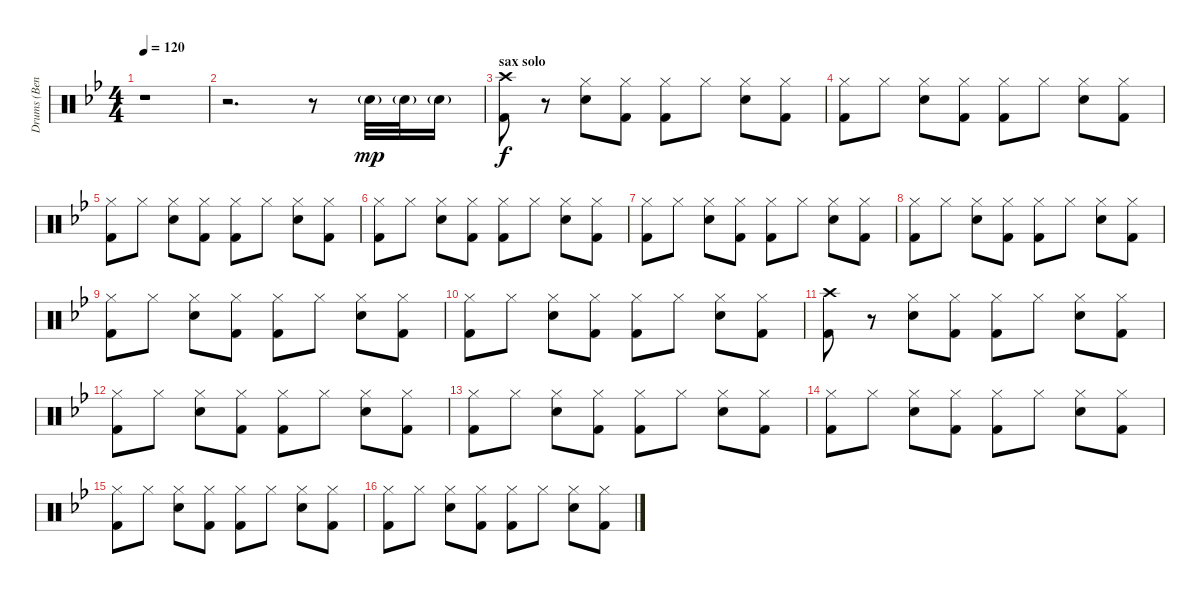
\track ("Drums (Bengerg)" "Drums (Ben") {instrument percussion}
\staff {score}
\articulation defaults
\ts (4 4)
\tempo 120
\clef neutral
\ks bb
r.1{dy f} |
r.2{d} r.8 "Electric Snare (hit)"{g}.32{dy mp} "Electric Snare (hit)"{g}.32 "Electric Snare (hit)"{g}.16 |
\section ("" "sax solo")
("Crash high (hit)" "Kick (hit) 2").8{dy f} r.8 ("Hi-Hat (closed)" "Electric Snare (hit)").8 ("Hi-Hat (closed)" "Kick (hit) 2").8 ("Hi-Hat (closed)" "Kick (hit) 2").8 "Hi-Hat (closed)".8 ("Hi-Hat (closed)" "Electric Snare (hit)").8 ("Hi-Hat (closed)" "Kick (hit) 2").8 |
("Hi-Hat (closed)" "Kick (hit) 2").8 "Hi-Hat (closed)".8 ("Hi-Hat (closed)" "Electric Snare (hit)").8 ("Hi-Hat (closed)" "Kick (hit) 2").8 ("Hi-Hat (closed)" "Kick (hit) 2").8 "Hi-Hat (closed)".8 ("Hi-Hat (closed)" "Electric Snare (hit)").8 ("Hi-Hat (closed)" "Kick (hit) 2").8 |
("Hi-Hat (closed)" "Kick (hit) 2").8 "Hi-Hat (closed)".8 ("Hi-Hat (closed)" "Electric Snare (hit)").8 ("Hi-Hat (closed)" "Kick (hit) 2").8 ("Hi-Hat (closed)" "Kick (hit) 2").8 "Hi-Hat (closed)".8 ("Hi-Hat (closed)" "Electric Snare (hit)").8 ("Hi-Hat (closed)" "Kick (hit) 2").8 |
("Hi-Hat (closed)" "Kick (hit) 2").8 "Hi-Hat (closed)".8 ("Hi-Hat (closed)" "Electric Snare (hit)").8 ("Hi-Hat (closed)" "Kick (hit) 2").8 ("Hi-Hat (closed)" "Kick (hit) 2").8 "Hi-Hat (closed)".8 ("Hi-Hat (closed)" "Electric Snare (hit)").8 ("Hi-Hat (closed)" "Kick (hit) 2").8 |
("Hi-Hat (closed)" "Kick (hit) 2").8 "Hi-Hat (closed)".8 ("Hi-Hat (closed)" "Electric Snare (hit)").8 ("Hi-Hat (closed)" "Kick (hit) 2").8 ("Hi-Hat (closed)" "Kick (hit) 2").8 "Hi-Hat (closed)".8 ("Hi-Hat (closed)" "Electric Snare (hit)").8 ("Hi-Hat (closed)" "Kick (hit) 2").8 |
("Hi-Hat (closed)" "Kick (hit) 2").8 "Hi-Hat (closed)".8 ("Hi-Hat (closed)" "Electric Snare (hit)").8 ("Hi-Hat (closed)" "Kick (hit) 2").8 ("Hi-Hat (closed)" "Kick (hit) 2").8 "Hi-Hat (closed)".8 ("Hi-Hat (closed)" "Electric Snare (hit)").8 ("Hi-Hat (closed)" "Kick (hit) 2").8 |
("Hi-Hat (closed)" "Kick (hit) 2").8 "Hi-Hat (closed)".8 ("Hi-Hat (closed)" "Electric Snare (hit)").8 ("Hi-Hat (closed)" "Kick (hit) 2").8 ("Hi-Hat (closed)" "Kick (hit) 2").8 "Hi-Hat (closed)".8 ("Hi-Hat (closed)" "Electric Snare (hit)").8 ("Hi-Hat (closed)" "Kick (hit) 2").8 |
("Hi-Hat (closed)" "Kick (hit) 2").8 "Hi-Hat (closed)".8 ("Hi-Hat (closed)" "Electric Snare (hit)").8 ("Hi-Hat (closed)" "Kick (hit) 2").8 ("Hi-Hat (closed)" "Kick (hit) 2").8 "Hi-Hat (closed)".8 ("Hi-Hat (closed)" "Electric Snare (hit)").8 ("Hi-Hat (closed)" "Kick (hit) 2").8 |
("Crash high (hit)" "Kick (hit) 2").8 r.8 ("Hi-Hat (closed)" "Electric Snare (hit)").8 ("Hi-Hat (closed)" "Kick (hit) 2").8 ("Hi-Hat (closed)" "Kick (hit) 2").8 "Hi-Hat (closed)".8 ("Hi-Hat (closed)" "Electric Snare (hit)").8 ("Hi-Hat (closed)" "Kick (hit) 2").8 |
("Hi-Hat (closed)" "Kick (hit) 2").8 "Hi-Hat (closed)".8 ("Hi-Hat (closed)" "Electric Snare (hit)").8 ("Hi-Hat (closed)" "Kick (hit) 2").8 ("Hi-Hat (closed)" "Kick (hit) 2").8 "Hi-Hat (closed)".8 ("Hi-Hat (closed)" "Electric Snare (hit)").8 ("Hi-Hat (closed)" "Kick (hit) 2").8 |
("Hi-Hat (closed)" "Kick (hit) 2").8 "Hi-Hat (closed)".8 ("Hi-Hat (closed)" "Electric Snare (hit)").8 ("Hi-Hat (closed)" "Kick (hit) 2").8 ("Hi-Hat (closed)" "Kick (hit) 2").8 "Hi-Hat (closed)".8 ("Hi-Hat (closed)" "Electric Snare (hit)").8 ("Hi-Hat (closed)" "Kick (hit) 2").8 |
("Hi-Hat (closed)" "Kick (hit) 2").8 "Hi-Hat (closed)".8 ("Hi-Hat (closed)" "Electric Snare (hit)").8 ("Hi-Hat (closed)" "Kick (hit) 2").8 ("Hi-Hat (closed)" "Kick (hit) 2").8 "Hi-Hat (closed)".8 ("Hi-Hat (closed)" "Electric Snare (hit)").8 ("Hi-Hat (closed)" "Kick (hit) 2").8 |
("Hi-Hat (closed)" "Kick (hit) 2").8 "Hi-Hat (closed)".8 ("Hi-Hat (closed)" "Electric Snare (hit)").8 ("Hi-Hat (closed)" "Kick (hit) 2").8 ("Hi-Hat (closed)" "Kick (hit) 2").8 "Hi-Hat (closed)".8 ("Hi-Hat (closed)" "Electric Snare (hit)").8 ("Hi-Hat (closed)" "Kick (hit) 2").8 |
("Hi-Hat (closed)" "Kick (hit) 2").8 "Hi-Hat (closed)".8 ("Hi-Hat (closed)" "Electric Snare (hit)").8 ("Hi-Hat (closed)" "Kick (hit) 2").8 ("Hi-Hat (closed)" "Kick (hit) 2").8 "Hi-Hat (closed)".8 ("Hi-Hat (closed)" "Electric Snare (hit)").8 ("Hi-Hat (closed)" "Kick (hit) 2").8
